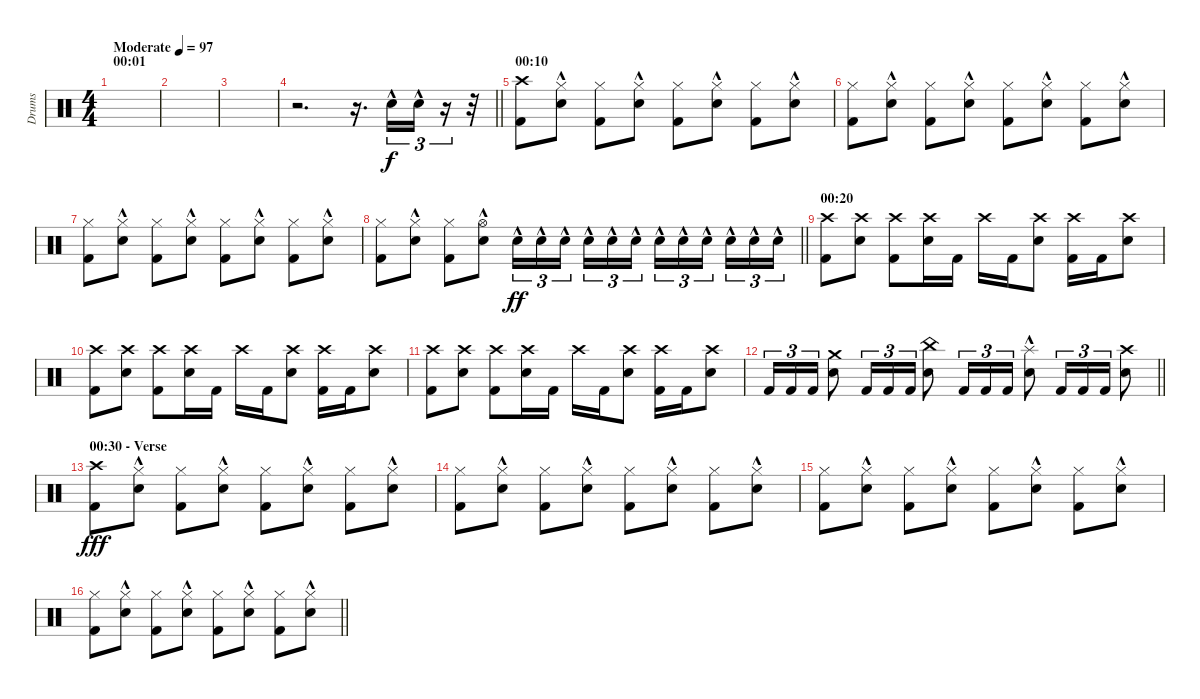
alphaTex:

\track ("Drums" "Drums") {instrument percussion}
\staff {score}
\articulation defaults
\ts (4 4)
\section ("" "00:01")
\tempo (97 "Moderate")
\clef neutral
\ks c
|
|
|
\barLineRight lightlight
r.2{d} r.16{d} "Electric Snare (hit)"{hac}.16{tu (3 2)} "Electric Snare (hit)"{hac}.16{tu (3 2)} r.16{tu (3 2)} r.32 |
\section ("" "00:10")
("Crash high (hit)" "Kick (hit) 2").8 ("Hi-Hat (closed)" "Electric Snare (hit)"{hac}).8 ("Hi-Hat (closed)" "Kick (hit) 2").8 ("Hi-Hat (closed)" "Electric Snare (hit)"{hac}).8 ("Hi-Hat (closed)" "Kick (hit) 2").8 ("Hi-Hat (closed)" "Electric Snare (hit)"{hac}).8 ("Hi-Hat (closed)" "Kick (hit) 2").8 ("Hi-Hat (closed)" "Electric Snare (hit)"{hac}).8 |
("Hi-Hat (closed)" "Kick (hit) 2").8 ("Hi-Hat (closed)" "Electric Snare (hit)"{hac}).8 ("Hi-Hat (closed)" "Kick (hit) 2").8 ("Hi-Hat (closed)" "Electric Snare (hit)"{hac}).8 ("Hi-Hat (closed)" "Kick (hit) 2").8 ("Hi-Hat (closed)" "Electric Snare (hit)"{hac}).8 ("Hi-Hat (closed)" "Kick (hit) 2").8 ("Hi-Hat (closed)" "Electric Snare (hit)"{hac}).8 |
("Hi-Hat (closed)" "Kick (hit) 2").8 ("Hi-Hat (closed)" "Electric Snare (hit)"{hac}).8 ("Hi-Hat (closed)" "Kick (hit) 2").8 ("Hi-Hat (closed)" "Electric Snare (hit)"{hac}).8 ("Hi-Hat (closed)" "Kick (hit) 2").8 ("Hi-Hat (closed)" "Electric Snare (hit)"{hac}).8 ("Hi-Hat (closed)" "Kick (hit) 2").8 ("Hi-Hat (closed)" "Electric Snare (hit)"{hac}).8 |
\barLineRight lightlight
("Hi-Hat (closed)" "Kick (hit) 2").8 ("Hi-Hat (closed)" "Electric Snare (hit)"{hac}).8 ("Hi-Hat (closed)" "Kick (hit) 2").8 ("Hi-Hat (open)" "Electric Snare (hit)"{hac}).8 "Electric Snare (hit)"{hac}.16{tu (3 2) dy ff} "Electric Snare (hit)"{hac}.16{tu (3 2)} "Electric Snare (hit)"{hac}.16{tu (3 2) beam splitsecondary} "Electric Snare (hit)"{hac}.16{tu (3 2)} "Electric Snare (hit)"{hac}.16{tu (3 2)} "Electric Snare (hit)"{hac}.16{tu (3 2)} "Electric Snare (hit)"{hac}.16{tu (3 2)} "Electric Snare (hit)"{hac}.16{tu (3 2)} "Electric Snare (hit)"{hac}.16{tu (3 2) beam splitsecondary} "Electric Snare (hit)"{hac}.16{tu (3 2)} "Electric Snare (hit)"{hac}.16{tu (3 2)} "Electric Snare (hit)"{hac}.16{tu (3 2)} |
\section ("" "00:20")
("Crash high (hit)" "Kick (hit) 2").8 ("Crash high (hit)" "Electric Snare (hit)").8 ("Crash high (hit)" "Kick (hit) 2").8 ("Crash high (hit)" "Electric Snare (hit)").16 "Kick (hit) 2".16 "Crash high (hit)".16 "Kick (hit) 2".16 ("Crash high (hit)" "Electric Snare (hit)").8 ("Crash high (hit)" "Kick (hit) 2").16 "Kick (hit) 2".16 ("Crash high (hit)" "Electric Snare (hit)").8 |
("Crash high (hit)" "Kick (hit) 2").8 ("Crash high (hit)" "Electric Snare (hit)").8 ("Crash high (hit)" "Kick (hit) 2").8 ("Crash high (hit)" "Electric Snare (hit)").16 "Kick (hit) 2".16 "Crash high (hit)".16 "Kick (hit) 2".16 ("Crash high (hit)" "Electric Snare (hit)").8 ("Crash high (hit)" "Kick (hit) 2").16 "Kick (hit) 2".16 ("Crash high (hit)" "Electric Snare (hit)").8 |
("Crash high (hit)" "Kick (hit) 2").8 ("Crash high (hit)" "Electric Snare (hit)").8 ("Crash high (hit)" "Kick (hit) 2").8 ("Crash high (hit)" "Electric Snare (hit)").16 "Kick (hit) 2".16 "Crash high (hit)".16 "Kick (hit) 2".16 ("Crash high (hit)" "Electric Snare (hit)").8 ("Crash high (hit)" "Kick (hit) 2").16 "Kick (hit) 2".16 ("Crash high (hit)" "Electric Snare (hit)").8 |
\barLineRight lightlight "Kick (hit) 2".16{tu (3 2)} "Kick (hit) 2".16{tu (3 2)} "Kick (hit) 2".16{tu (3 2)}
("Crash medium (hit)" "Electric Snare (hit)").8 "Kick (hit) 2".16{tu (3 2)} "Kick (hit) 2".16{tu (3 2)} "Kick (hit) 2".16{tu (3 2)} ("China (hit)" "Electric Snare (hit)").8 "Kick (hit) 2".16{tu (3 2)} "Kick (hit) 2".16{tu (3 2)} "Kick (hit) 2".16{tu (3 2)} ("Splash (hit)"{hac} "Electric Snare (hit)").8 "Kick (hit) 2".16{tu (3 2)} "Kick (hit) 2".16{tu (3 2)} "Kick (hit) 2".16{tu (3 2)} ("Crash high (hit)" "Electric Snare (hit)").8 |
\section ("" "00:30 - Verse")
("Crash high (hit)" "Kick (hit) 2").8{dy fff} ("Hi-Hat (closed)" "Electric Snare (hit)"{hac}).8 ("Hi-Hat (closed)" "Kick (hit) 2").8 ("Hi-Hat (closed)" "Electric Snare (hit)"{hac}).8 ("Hi-Hat (closed)" "Kick (hit) 2").8 ("Hi-Hat (closed)" "Electric Snare (hit)"{hac}).8 ("Hi-Hat (closed)" "Kick (hit) 2").8 ("Hi-Hat (closed)" "Electric Snare (hit)"{hac}).8 |
("Hi-Hat (closed)" "Kick (hit) 2").8 ("Hi-Hat (closed)" "Electric Snare (hit)"{hac}).8 ("Hi-Hat (closed)" "Kick (hit) 2").8 ("Hi-Hat (closed)" "Electric Snare (hit)"{hac}).8 ("Hi-Hat (closed)" "Kick (hit) 2").8 ("Hi-Hat (closed)" "Electric Snare (hit)"{hac}).8 ("Hi-Hat (closed)" "Kick (hit) 2").8 ("Hi-Hat (closed)" "Electric Snare (hit)"{hac}).8 |
("Hi-Hat (closed)" "Kick (hit) 2").8 ("Hi-Hat (closed)" "Electric Snare (hit)"{hac}).8 ("Hi-Hat (closed)" "Kick (hit) 2").8 ("Hi-Hat (closed)" "Electric Snare (hit)"{hac}).8 ("Hi-Hat (closed)" "Kick (hit) 2").8 ("Hi-Hat (closed)" "Electric Snare (hit)"{hac}).8 ("Hi-Hat (closed)" "Kick (hit) 2").8 ("Hi-Hat (closed)" "Electric Snare (hit)"{hac}).8 |
\barLineRight lightlight
("Hi-Hat (closed)" "Kick (hit) 2").8 ("Hi-Hat (closed)" "Electric Snare (hit)"{hac}).8 ("Hi-Hat (closed)" "Kick (hit) 2").8 ("Hi-Hat (closed)" "Electric Snare (hit)"{hac}).8 ("Hi-Hat (closed)" "Kick (hit) 2").8 ("Hi-Hat (closed)" "Electric Snare (hit)"{hac}).8 ("Hi-Hat (closed)" "Kick (hit) 2").8 ("Hi-Hat (closed)" "Electric Snare (hit)"{hac}).8
